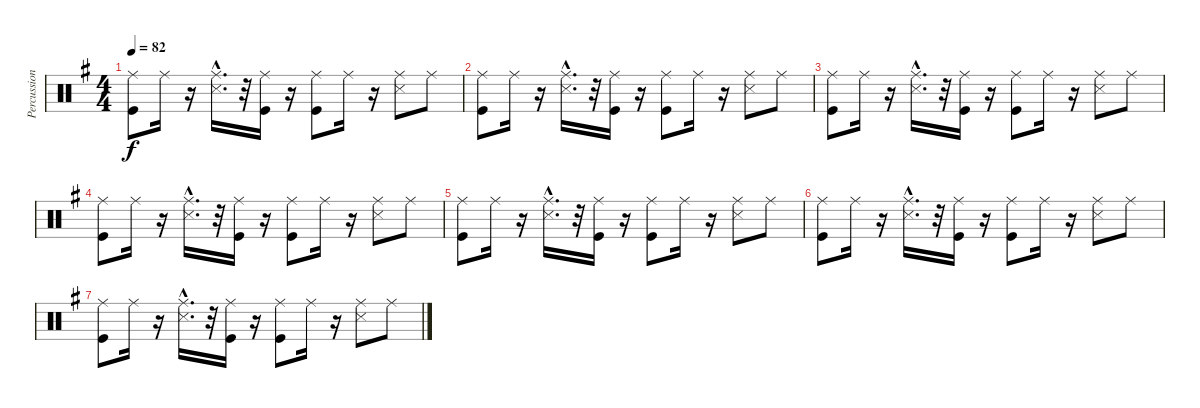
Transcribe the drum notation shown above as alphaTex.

\track ("Percussion" "Percussion") {instrument percussion}
\staff {score}
\articulation defaults
\ts (4 4)
\tempo 82
\clef neutral
\ks g
("Kick (hit)" "Ride (middle)").8{dy f} "Ride (middle)".16 r.16 ("Snare (side stick) 3"{hac} "Ride (middle)"{hac}).16{d} r.32 ("Ride (middle)" "Kick (hit)").16 r.16 ("Ride (middle)" "Kick (hit)").8 "Ride (middle)".16 r.16 ("Snare (side stick) 3" "Ride (middle)").8 "Ride (middle)".8 |
("Kick (hit)" "Ride (middle)").8 "Ride (middle)".16 r.16 ("Snare (side stick) 3"{hac} "Ride (middle)"{hac}).16{d} r.32 ("Ride (middle)" "Kick (hit)").16 r.16 ("Ride (middle)" "Kick (hit)").8 "Ride (middle)".16 r.16 ("Snare (side stick) 3" "Ride (middle)").8 "Ride (middle)".8 |
("Kick (hit)" "Ride (middle)").8 "Ride (middle)".16 r.16 ("Snare (side stick) 3"{hac} "Ride (middle)"{hac}).16{d} r.32 ("Ride (middle)" "Kick (hit)").16 r.16 ("Ride (middle)" "Kick (hit)").8 "Ride (middle)".16 r.16 ("Snare (side stick) 3" "Ride (middle)").8 "Ride (middle)".8 |
("Kick (hit)" "Ride (middle)").8 "Ride (middle)".16 r.16 ("Snare (side stick) 3"{hac} "Ride (middle)"{hac}).16{d} r.32 ("Ride (middle)" "Kick (hit)").16 r.16 ("Ride (middle)" "Kick (hit)").8 "Ride (middle)".16 r.16 ("Snare (side stick) 3" "Ride (middle)").8 "Ride (middle)".8 |
("Kick (hit)" "Ride (middle)").8 "Ride (middle)".16 r.16 ("Snare (side stick) 3"{hac} "Ride (middle)"{hac}).16{d} r.32 ("Ride (middle)" "Kick (hit)").16 r.16 ("Ride (middle)" "Kick (hit)").8 "Ride (middle)".16 r.16 ("Snare (side stick) 3" "Ride (middle)").8 "Ride (middle)".8 |
("Kick (hit)" "Ride (middle)").8 "Ride (middle)".16 r.16 ("Snare (side stick) 3"{hac} "Ride (middle)"{hac}).16{d} r.32 ("Ride (middle)" "Kick (hit)").16 r.16 ("Ride (middle)" "Kick (hit)").8 "Ride (middle)".16 r.16 ("Snare (side stick) 3" "Ride (middle)").8 "Ride (middle)".8 |
("Kick (hit)" "Ride (middle)").8 "Ride (middle)".16 r.16 ("Snare (side stick) 3"{hac} "Ride (middle)"{hac}).16{d} r.32 ("Ride (middle)" "Kick (hit)").16 r.16 ("Ride (middle)" "Kick (hit)").8 "Ride (middle)".16 r.16 ("Snare (side stick) 3" "Ride (middle)").8 "Ride (middle)".8
